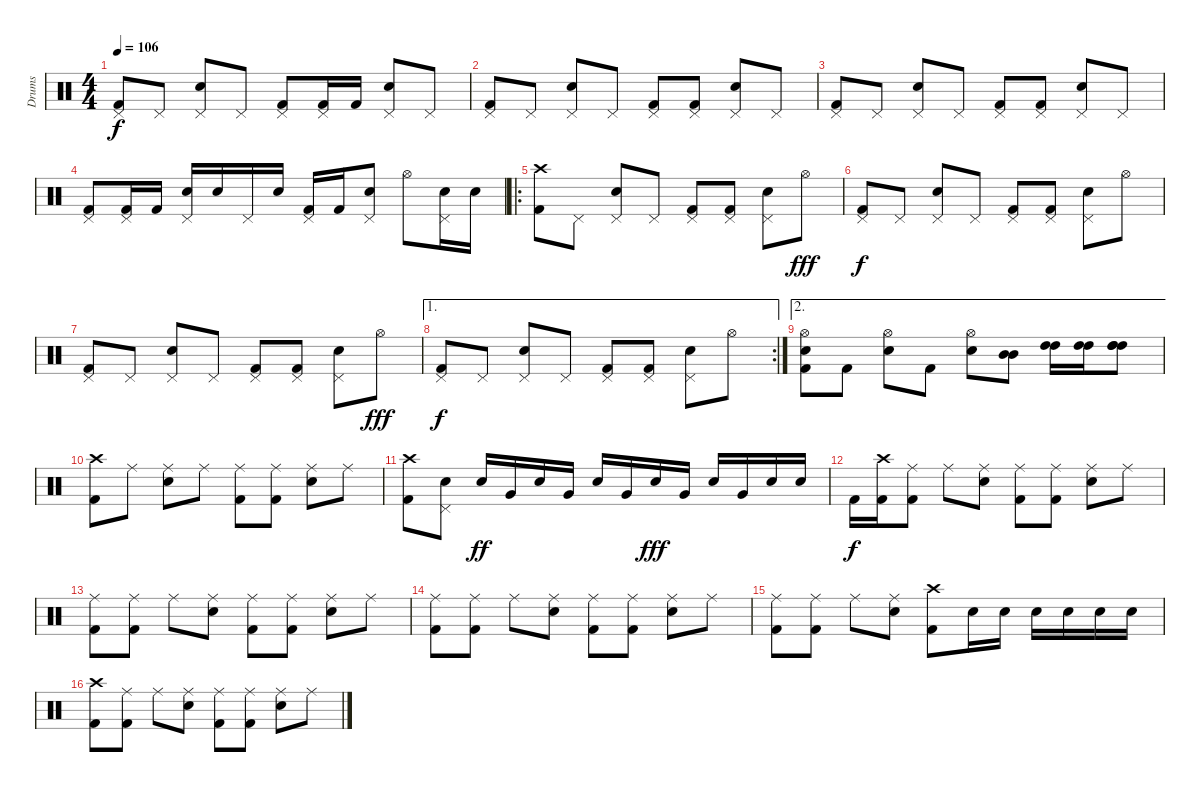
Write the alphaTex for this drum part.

\track ("Drums" "Drums") {instrument percussion}
\staff {score}
\articulation defaults
\ts (4 4)
\tempo 106
\clef neutral
\ks c
("Pedal Hi-Hat (hit)" "Kick (hit) 2").8{dy f} "Pedal Hi-Hat (hit)".8 ("Pedal Hi-Hat (hit)" "Snare (hit) 2").8 "Pedal Hi-Hat (hit)".8 ("Pedal Hi-Hat (hit)" "Kick (hit) 2").8 ("Pedal Hi-Hat (hit)" "Kick (hit) 2").16 "Kick (hit) 2".16 ("Pedal Hi-Hat (hit)" "Snare (hit) 2").8 "Pedal Hi-Hat (hit)".8 |
("Pedal Hi-Hat (hit)" "Kick (hit) 2").8 "Pedal Hi-Hat (hit)".8 ("Pedal Hi-Hat (hit)" "Snare (hit) 2").8 "Pedal Hi-Hat (hit)".8 ("Pedal Hi-Hat (hit)" "Kick (hit) 2").8 ("Pedal Hi-Hat (hit)" "Kick (hit) 2").8 ("Pedal Hi-Hat (hit)" "Snare (hit) 2").8 "Pedal Hi-Hat (hit)".8 |
("Pedal Hi-Hat (hit)" "Kick (hit) 2").8 "Pedal Hi-Hat (hit)".8 ("Pedal Hi-Hat (hit)" "Snare (hit) 2").8 "Pedal Hi-Hat (hit)".8 ("Pedal Hi-Hat (hit)" "Kick (hit) 2").8 ("Pedal Hi-Hat (hit)" "Kick (hit) 2").8 ("Pedal Hi-Hat (hit)" "Snare (hit) 2").8 "Pedal Hi-Hat (hit)".8 |
("Pedal Hi-Hat (hit)" "Kick (hit) 2").8 ("Pedal Hi-Hat (hit)" "Kick (hit) 2").16 "Kick (hit) 2".16 ("Pedal Hi-Hat (hit)" "Snare (hit) 2").16 "Snare (hit) 2".16 "Pedal Hi-Hat (hit)".16 "Snare (hit) 2".16 ("Pedal Hi-Hat (hit)" "Kick (hit) 2").16 "Kick (hit) 2".16 ("Pedal Hi-Hat (hit)" "Snare (hit) 2").8 "Hi-Hat (open)".8 ("Pedal Hi-Hat (hit)" "Snare (hit) 2").16 "Snare (hit) 2".16 |
\ro
("Crash high (hit)" "Kick (hit) 2").8 "Pedal Hi-Hat (hit)".8 ("Pedal Hi-Hat (hit)" "Snare (hit) 2").8 "Pedal Hi-Hat (hit)".8 ("Pedal Hi-Hat (hit)" "Kick (hit) 2").8 ("Pedal Hi-Hat (hit)" "Kick (hit) 2").8 ("Pedal Hi-Hat (hit)" "Snare (hit) 2").8 "Hi-Hat (open)".8{dy fff} |
("Pedal Hi-Hat (hit)" "Kick (hit) 2").8{dy f} "Pedal Hi-Hat (hit)".8 ("Pedal Hi-Hat (hit)" "Snare (hit) 2").8 "Pedal Hi-Hat (hit)".8 ("Pedal Hi-Hat (hit)" "Kick (hit) 2").8 ("Pedal Hi-Hat (hit)" "Kick (hit) 2").8 ("Pedal Hi-Hat (hit)" "Snare (hit) 2").8 "Hi-Hat (open)".8 |
("Pedal Hi-Hat (hit)" "Kick (hit) 2").8 "Pedal Hi-Hat (hit)".8 ("Pedal Hi-Hat (hit)" "Snare (hit) 2").8 "Pedal Hi-Hat (hit)".8 ("Pedal Hi-Hat (hit)" "Kick (hit) 2").8 ("Pedal Hi-Hat (hit)" "Kick (hit) 2").8 ("Pedal Hi-Hat (hit)" "Snare (hit) 2").8 "Hi-Hat (open)".8{dy fff} |
\ae 1
\rc 2
("Pedal Hi-Hat (hit)" "Kick (hit) 2").8{dy f} "Pedal Hi-Hat (hit)".8 ("Pedal Hi-Hat (hit)" "Snare (hit) 2").8 "Pedal Hi-Hat (hit)".8 ("Pedal Hi-Hat (hit)" "Kick (hit) 2").8 ("Pedal Hi-Hat (hit)" "Kick (hit) 2").8 ("Pedal Hi-Hat (hit)" "Snare (hit) 2").8 "Hi-Hat (open)".8 |
\ae 2
("Hi-Hat (open)" "Snare (hit) 2" "Kick (hit) 2").8 "Kick (hit) 2".8 ("Hi-Hat (open)" "Snare (hit) 2").8 "Kick (hit) 2".8 ("Hi-Hat (open)" "Snare (hit) 2").8 ("Mid Tom (hit)" "Mid Tom (hit)").8 ("High Tom (hit)" "High Tom (hit)").16 ("High Tom (hit)" "High Tom (hit)").16 ("High Tom (hit)" "High Tom (hit)" "High Tom (hit)").8 |
("Crash high (hit)" "Kick (hit) 2").8 "Ride (middle)".8 ("Ride (middle)" "Snare (hit) 2").8 "Ride (middle)".8 ("Ride (middle)" "Kick (hit) 2").8 ("Ride (middle)" "Kick (hit) 2").8 ("Ride (middle)" "Snare (hit) 2").8 "Ride (middle)".8 |
("Crash high (hit)" "Kick (hit) 2").8 ("Pedal Hi-Hat (hit)" "Snare (hit) 2").8 "Snare (hit) 2".16{dy ff} "Very Low Tom (hit)".16 "Snare (hit) 2".16 "Very Low Tom (hit)".16 "Snare (hit) 2".16 "Very Low Tom (hit)".16 "Snare (hit) 2".16{dy fff} "Very Low Tom (hit)".16 "Snare (hit) 2".16 "Very Low Tom (hit)".16 "Snare (hit) 2".16 "Snare (hit) 2".16 |
"Kick (hit) 2".16{dy f} ("Crash high (hit)" "Kick (hit) 2").16{volume 16} ("Ride (middle)" "Kick (hit) 2").8 "Ride (middle)".8 ("Ride (middle)" "Snare (hit) 2").8 ("Ride (middle)" "Kick (hit) 2").8 ("Ride (middle)" "Kick (hit) 2").8 ("Ride (middle)" "Snare (hit) 2").8 "Ride (middle)".8 |
("Ride (middle)" "Kick (hit) 2").8 ("Ride (middle)" "Kick (hit) 2").8 "Ride (middle)".8 ("Ride (middle)" "Snare (hit) 2").8 ("Ride (middle)" "Kick (hit) 2").8 ("Ride (middle)" "Kick (hit) 2").8 ("Ride (middle)" "Snare (hit) 2").8 "Ride (middle)".8 |
("Ride (middle)" "Kick (hit) 2").8{volume 16} ("Ride (middle)" "Kick (hit) 2").8 "Ride (middle)".8 ("Ride (middle)" "Snare (hit) 2").8 ("Ride (middle)" "Kick (hit) 2").8 ("Ride (middle)" "Kick (hit) 2").8 ("Ride (middle)" "Snare (hit) 2").8 "Ride (middle)".8 |
("Ride (middle)" "Kick (hit) 2").8{volume 16} ("Ride (middle)" "Kick (hit) 2").8 "Ride (middle)".8 ("Ride (middle)" "Snare (hit) 2").8 ("Crash high (hit)" "Kick (hit) 2").8 "Snare (hit) 2".16 "Snare (hit) 2".16 "Snare (hit) 2".16 "Snare (hit) 2".16 "Snare (hit) 2".16 "Snare (hit) 2".16 |
("Crash high (hit)" "Kick (hit) 2").8{volume 16} ("Ride (middle)" "Kick (hit) 2").8 "Ride (middle)".8 ("Ride (middle)" "Snare (hit) 2").8 ("Ride (middle)" "Kick (hit) 2").8 ("Ride (middle)" "Kick (hit) 2").8 ("Ride (middle)" "Snare (hit) 2").8 "Ride (middle)".8
